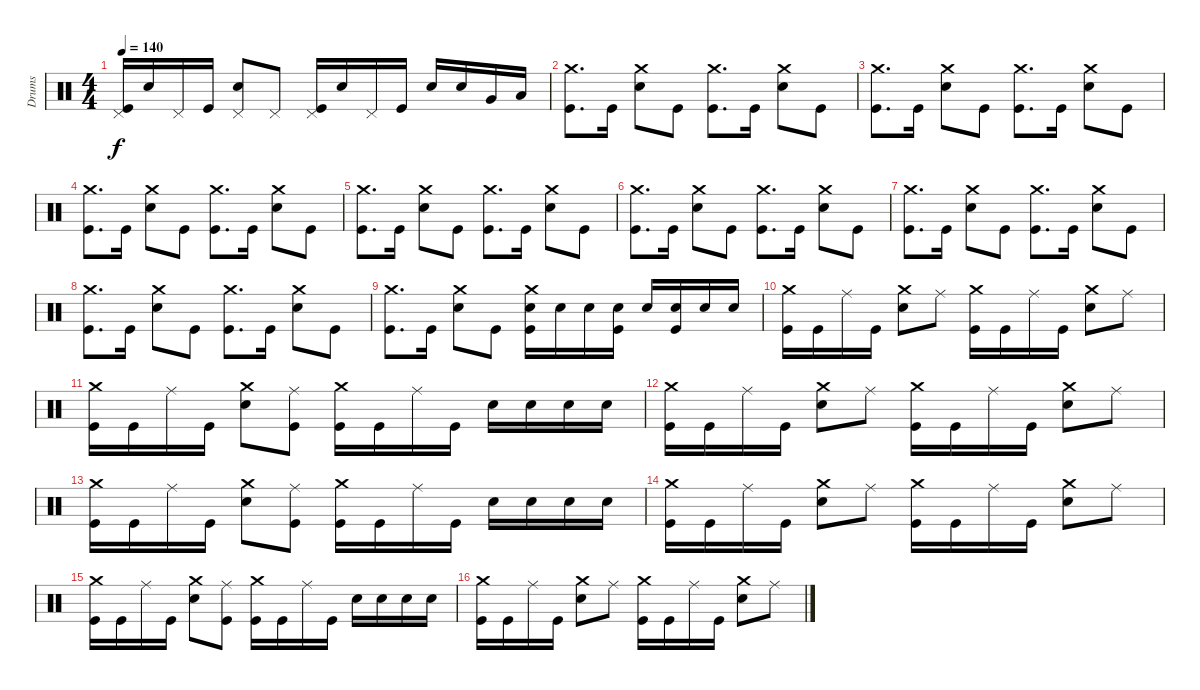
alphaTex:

\track ("Drums" "Drums") {instrument percussion}
\staff {score}
\articulation defaults
\ts (4 4)
\tempo 140
\clef neutral
\ks c
("Kick (hit)" "Pedal Hi-Hat (hit)").16{dy f} "Snare (hit) 2".16 "Pedal Hi-Hat (hit)".16 "Kick (hit)".16 ("Snare (hit) 2" "Pedal Hi-Hat (hit)").8 "Pedal Hi-Hat (hit)".8 ("Kick (hit)" "Pedal Hi-Hat (hit)").16 "Snare (hit) 2".16 "Pedal Hi-Hat (hit)".16 "Kick (hit)".16 "Snare (hit) 2".16 "Snare (hit) 2".16 "Very Low Tom (hit)".16 "Low Floor Tom (hit)".16 |
("Kick (hit)" "Crash medium (hit)").8{d} "Kick (hit)".16 ("Snare (hit) 2" "Crash medium (hit)").8 "Kick (hit)".8 ("Kick (hit)" "Crash medium (hit)").8{d} "Kick (hit)".16 ("Snare (hit) 2" "Crash medium (hit)").8 "Kick (hit)".8 |
("Kick (hit)" "Crash medium (hit)").8{d} "Kick (hit)".16 ("Snare (hit) 2" "Crash medium (hit)").8 "Kick (hit)".8 ("Kick (hit)" "Crash medium (hit)").8{d} "Kick (hit)".16 ("Snare (hit) 2" "Crash medium (hit)").8 "Kick (hit)".8 |
("Kick (hit)" "Crash medium (hit)").8{d} "Kick (hit)".16 ("Snare (hit) 2" "Crash medium (hit)").8 "Kick (hit)".8 ("Kick (hit)" "Crash medium (hit)").8{d} "Kick (hit)".16 ("Snare (hit) 2" "Crash medium (hit)").8 "Kick (hit)".8 |
("Kick (hit)" "Crash medium (hit)").8{d} "Kick (hit)".16 ("Snare (hit) 2" "Crash medium (hit)").8 "Kick (hit)".8 ("Kick (hit)" "Crash medium (hit)").8{d} "Kick (hit)".16 ("Snare (hit) 2" "Crash medium (hit)").8 "Kick (hit)".8 |
("Kick (hit)" "Crash medium (hit)").8{d} "Kick (hit)".16 ("Snare (hit) 2" "Crash medium (hit)").8 "Kick (hit)".8 ("Kick (hit)" "Crash medium (hit)").8{d} "Kick (hit)".16 ("Snare (hit) 2" "Crash medium (hit)").8 "Kick (hit)".8 |
("Kick (hit)" "Crash medium (hit)").8{d} "Kick (hit)".16 ("Snare (hit) 2" "Crash medium (hit)").8 "Kick (hit)".8 ("Kick (hit)" "Crash medium (hit)").8{d} "Kick (hit)".16 ("Snare (hit) 2" "Crash medium (hit)").8 "Kick (hit)".8 |
("Kick (hit)" "Crash medium (hit)").8{d} "Kick (hit)".16 ("Snare (hit) 2" "Crash medium (hit)").8 "Kick (hit)".8 ("Kick (hit)" "Crash medium (hit)").8{d} "Kick (hit)".16 ("Snare (hit) 2" "Crash medium (hit)").8 "Kick (hit)".8 |
("Kick (hit)" "Crash medium (hit)").8{d} "Kick (hit)".16 ("Snare (hit) 2" "Crash medium (hit)").8 "Kick (hit)".8 ("Kick (hit)" "Snare (hit) 2" "Crash medium (hit)").16 "Snare (hit) 2".16 "Snare (hit) 2".16 ("Kick (hit)" "Snare (hit) 2").16 "Snare (hit) 2".16 ("Kick (hit)" "Snare (hit) 2").16 "Snare (hit) 2".16 "Snare (hit) 2".16 |
("Kick (hit)" "Crash medium (hit)").16 "Kick (hit)".16 "Ride (middle)".16 "Kick (hit)".16 ("Snare (hit) 2" "Crash medium (hit)").8 "Ride (middle)".8 ("Kick (hit)" "Crash medium (hit)").16 "Kick (hit)".16 "Ride (middle)".16 "Kick (hit)".16 ("Snare (hit) 2" "Crash medium (hit)").8 "Ride (middle)".8 |
("Kick (hit)" "Crash medium (hit)").16 "Kick (hit)".16 "Ride (middle)".16 "Kick (hit)".16 ("Snare (hit) 2" "Crash medium (hit)").8 ("Kick (hit)" "Ride (middle)").8 ("Kick (hit)" "Crash medium (hit)").16 "Kick (hit)".16 "Ride (middle)".16 "Kick (hit)".16 "Snare (hit) 2".16 "Snare (hit) 2".16 "Snare (hit) 2".16 "Snare (hit) 2".16 |
("Kick (hit)" "Crash medium (hit)").16 "Kick (hit)".16 "Ride (middle)".16 "Kick (hit)".16 ("Snare (hit) 2" "Crash medium (hit)").8 "Ride (middle)".8 ("Kick (hit)" "Crash medium (hit)").16 "Kick (hit)".16 "Ride (middle)".16 "Kick (hit)".16 ("Snare (hit) 2" "Crash medium (hit)").8 "Ride (middle)".8 |
("Kick (hit)" "Crash medium (hit)").16 "Kick (hit)".16 "Ride (middle)".16 "Kick (hit)".16 ("Snare (hit) 2" "Crash medium (hit)").8 ("Kick (hit)" "Ride (middle)").8 ("Kick (hit)" "Crash medium (hit)").16 "Kick (hit)".16 "Ride (middle)".16 "Kick (hit)".16 "Snare (hit) 2".16 "Snare (hit) 2".16 "Snare (hit) 2".16 "Snare (hit) 2".16 |
("Kick (hit)" "Crash medium (hit)").16 "Kick (hit)".16 "Ride (middle)".16 "Kick (hit)".16 ("Snare (hit) 2" "Crash medium (hit)").8 "Ride (middle)".8 ("Kick (hit)" "Crash medium (hit)").16 "Kick (hit)".16 "Ride (middle)".16 "Kick (hit)".16 ("Snare (hit) 2" "Crash medium (hit)").8 "Ride (middle)".8 |
("Kick (hit)" "Crash medium (hit)").16 "Kick (hit)".16 "Ride (middle)".16 "Kick (hit)".16 ("Snare (hit) 2" "Crash medium (hit)").8 ("Kick (hit)" "Ride (middle)").8 ("Kick (hit)" "Crash medium (hit)").16 "Kick (hit)".16 "Ride (middle)".16 "Kick (hit)".16 "Snare (hit) 2".16 "Snare (hit) 2".16 "Snare (hit) 2".16 "Snare (hit) 2".16 |
("Kick (hit)" "Crash medium (hit)").16 "Kick (hit)".16 "Ride (middle)".16 "Kick (hit)".16 ("Snare (hit) 2" "Crash medium (hit)").8 "Ride (middle)".8 ("Kick (hit)" "Crash medium (hit)").16 "Kick (hit)".16 "Ride (middle)".16 "Kick (hit)".16 ("Snare (hit) 2" "Crash medium (hit)").8 "Ride (middle)".8
